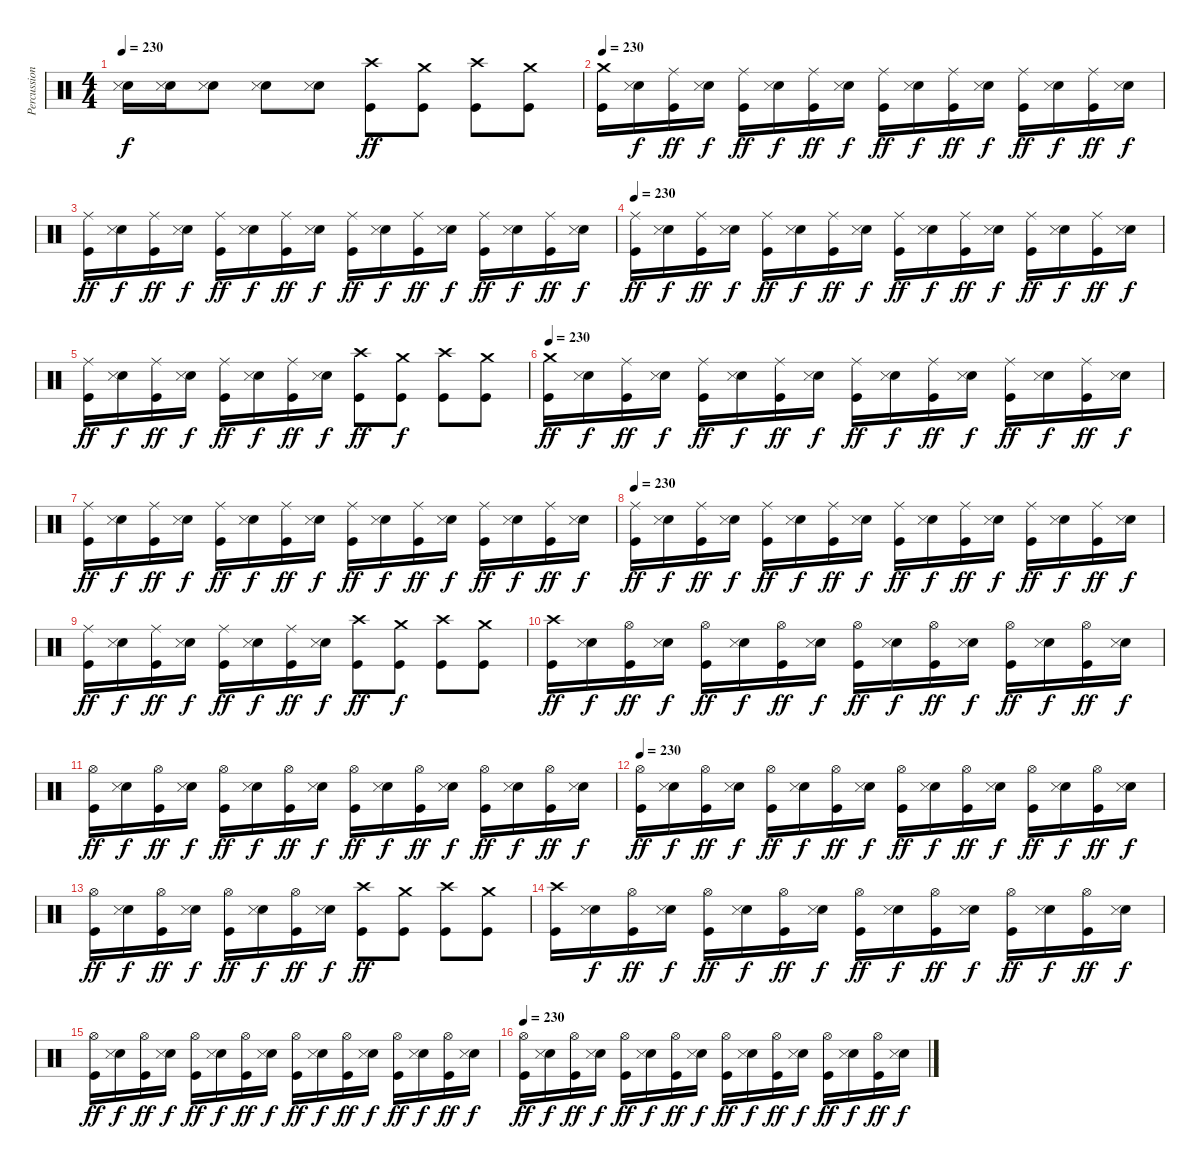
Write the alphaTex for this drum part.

\track ("Percussions" "Percussion") {instrument percussion}
\staff {score}
\articulation defaults
\ts (4 4)
\tempo 230
\clef neutral
\ks c
("Electric Snare (hit)" "Snare (side stick) 3").16{dy f} ("Electric Snare (hit)" "Snare (side stick) 3").16 ("Electric Snare (hit)" "Snare (side stick) 3").8 ("Electric Snare (hit)" "Snare (side stick) 3").8 ("Electric Snare (hit)" "Snare (side stick) 3").8 ("Crash high (hit)" "Kick (hit)").8{dy ff} ("Crash medium (hit)" "Kick (hit)").8 ("Crash high (hit)" "Kick (hit)").8 ("Crash medium (hit)" "Kick (hit)").8 |
\tempo 230
("Crash medium (hit)" "Kick (hit)").16 ("Electric Snare (hit)" "Snare (side stick) 3").16{dy f} ("Ride (middle)" "Kick (hit)").16{dy ff} ("Electric Snare (hit)" "Snare (side stick) 3").16{dy f} ("Ride (middle)" "Kick (hit)").16{dy ff} ("Electric Snare (hit)" "Snare (side stick) 3").16{dy f} ("Ride (middle)" "Kick (hit)").16{dy ff} ("Electric Snare (hit)" "Snare (side stick) 3").16{dy f} ("Ride (middle)" "Kick (hit)").16{dy ff} ("Electric Snare (hit)" "Snare (side stick) 3").16{dy f} ("Ride (middle)" "Kick (hit)").16{dy ff} ("Electric Snare (hit)" "Snare (side stick) 3").16{dy f} ("Ride (middle)" "Kick (hit)").16{dy ff} ("Electric Snare (hit)" "Snare (side stick) 3").16{dy f} ("Ride (middle)" "Kick (hit)").16{dy ff} ("Electric Snare (hit)" "Snare (side stick) 3").16{dy f} |
("Ride (middle)" "Kick (hit)").16{dy ff} ("Electric Snare (hit)" "Snare (side stick) 3").16{dy f} ("Ride (middle)" "Kick (hit)").16{dy ff} ("Electric Snare (hit)" "Snare (side stick) 3").16{dy f} ("Ride (middle)" "Kick (hit)").16{dy ff} ("Electric Snare (hit)" "Snare (side stick) 3").16{dy f} ("Ride (middle)" "Kick (hit)").16{dy ff} ("Electric Snare (hit)" "Snare (side stick) 3").16{dy f} ("Ride (middle)" "Kick (hit)").16{dy ff} ("Electric Snare (hit)" "Snare (side stick) 3").16{dy f} ("Ride (middle)" "Kick (hit)").16{dy ff} ("Electric Snare (hit)" "Snare (side stick) 3").16{dy f} ("Ride (middle)" "Kick (hit)").16{dy ff} ("Electric Snare (hit)" "Snare (side stick) 3").16{dy f} ("Ride (middle)" "Kick (hit)").16{dy ff} ("Electric Snare (hit)" "Snare (side stick) 3").16{dy f} |
\tempo 230
("Ride (middle)" "Kick (hit)").16{dy ff} ("Electric Snare (hit)" "Snare (side stick) 3").16{dy f} ("Ride (middle)" "Kick (hit)").16{dy ff} ("Electric Snare (hit)" "Snare (side stick) 3").16{dy f} ("Ride (middle)" "Kick (hit)").16{dy ff} ("Electric Snare (hit)" "Snare (side stick) 3").16{dy f} ("Ride (middle)" "Kick (hit)").16{dy ff} ("Electric Snare (hit)" "Snare (side stick) 3").16{dy f} ("Ride (middle)" "Kick (hit)").16{dy ff} ("Electric Snare (hit)" "Snare (side stick) 3").16{dy f} ("Ride (middle)" "Kick (hit)").16{dy ff} ("Electric Snare (hit)" "Snare (side stick) 3").16{dy f} ("Ride (middle)" "Kick (hit)").16{dy ff} ("Electric Snare (hit)" "Snare (side stick) 3").16{dy f} ("Ride (middle)" "Kick (hit)").16{dy ff} ("Electric Snare (hit)" "Snare (side stick) 3").16{dy f} |
("Ride (middle)" "Kick (hit)").16{dy ff} ("Electric Snare (hit)" "Snare (side stick) 3").16{dy f} ("Ride (middle)" "Kick (hit)").16{dy ff} ("Electric Snare (hit)" "Snare (side stick) 3").16{dy f} ("Ride (middle)" "Kick (hit)").16{dy ff} ("Electric Snare (hit)" "Snare (side stick) 3").16{dy f} ("Ride (middle)" "Kick (hit)").16{dy ff} ("Electric Snare (hit)" "Snare (side stick) 3").16{dy f} ("Crash high (hit)" "Kick (hit)").8{dy ff} ("Crash medium (hit)" "Kick (hit)").8{dy f} ("Crash high (hit)" "Kick (hit)").8 ("Crash medium (hit)" "Kick (hit)").8 |
\tempo 230
("Crash medium (hit)" "Kick (hit)").16{dy ff} ("Electric Snare (hit)" "Snare (side stick) 3").16{dy f} ("Ride (middle)" "Kick (hit)").16{dy ff} ("Electric Snare (hit)" "Snare (side stick) 3").16{dy f} ("Ride (middle)" "Kick (hit)").16{dy ff} ("Electric Snare (hit)" "Snare (side stick) 3").16{dy f} ("Ride (middle)" "Kick (hit)").16{dy ff} ("Electric Snare (hit)" "Snare (side stick) 3").16{dy f} ("Ride (middle)" "Kick (hit)").16{dy ff} ("Electric Snare (hit)" "Snare (side stick) 3").16{dy f} ("Ride (middle)" "Kick (hit)").16{dy ff} ("Electric Snare (hit)" "Snare (side stick) 3").16{dy f} ("Ride (middle)" "Kick (hit)").16{dy ff} ("Electric Snare (hit)" "Snare (side stick) 3").16{dy f} ("Ride (middle)" "Kick (hit)").16{dy ff} ("Electric Snare (hit)" "Snare (side stick) 3").16{dy f} |
("Ride (middle)" "Kick (hit)").16{dy ff} ("Electric Snare (hit)" "Snare (side stick) 3").16{dy f} ("Ride (middle)" "Kick (hit)").16{dy ff} ("Electric Snare (hit)" "Snare (side stick) 3").16{dy f} ("Ride (middle)" "Kick (hit)").16{dy ff} ("Electric Snare (hit)" "Snare (side stick) 3").16{dy f} ("Ride (middle)" "Kick (hit)").16{dy ff} ("Electric Snare (hit)" "Snare (side stick) 3").16{dy f} ("Ride (middle)" "Kick (hit)").16{dy ff} ("Electric Snare (hit)" "Snare (side stick) 3").16{dy f} ("Ride (middle)" "Kick (hit)").16{dy ff} ("Electric Snare (hit)" "Snare (side stick) 3").16{dy f} ("Ride (middle)" "Kick (hit)").16{dy ff} ("Electric Snare (hit)" "Snare (side stick) 3").16{dy f} ("Ride (middle)" "Kick (hit)").16{dy ff} ("Electric Snare (hit)" "Snare (side stick) 3").16{dy f} |
\tempo 230
("Ride (middle)" "Kick (hit)").16{dy ff} ("Electric Snare (hit)" "Snare (side stick) 3").16{dy f} ("Ride (middle)" "Kick (hit)").16{dy ff} ("Electric Snare (hit)" "Snare (side stick) 3").16{dy f} ("Ride (middle)" "Kick (hit)").16{dy ff} ("Electric Snare (hit)" "Snare (side stick) 3").16{dy f} ("Ride (middle)" "Kick (hit)").16{dy ff} ("Electric Snare (hit)" "Snare (side stick) 3").16{dy f} ("Ride (middle)" "Kick (hit)").16{dy ff} ("Electric Snare (hit)" "Snare (side stick) 3").16{dy f} ("Ride (middle)" "Kick (hit)").16{dy ff} ("Electric Snare (hit)" "Snare (side stick) 3").16{dy f} ("Ride (middle)" "Kick (hit)").16{dy ff} ("Electric Snare (hit)" "Snare (side stick) 3").16{dy f} ("Ride (middle)" "Kick (hit)").16{dy ff} ("Electric Snare (hit)" "Snare (side stick) 3").16{dy f} |
("Ride (middle)" "Kick (hit)").16{dy ff} ("Electric Snare (hit)" "Snare (side stick) 3").16{dy f} ("Ride (middle)" "Kick (hit)").16{dy ff} ("Electric Snare (hit)" "Snare (side stick) 3").16{dy f} ("Ride (middle)" "Kick (hit)").16{dy ff} ("Electric Snare (hit)" "Snare (side stick) 3").16{dy f} ("Ride (middle)" "Kick (hit)").16{dy ff} ("Electric Snare (hit)" "Snare (side stick) 3").16{dy f} ("Crash high (hit)" "Kick (hit)").8{dy ff} ("Crash medium (hit)" "Kick (hit)").8{dy f} ("Crash high (hit)" "Kick (hit)").8 ("Crash medium (hit)" "Kick (hit)").8 |
("Crash high (hit)" "Kick (hit)").16{dy ff} ("Electric Snare (hit)" "Snare (side stick) 3").16{dy f} ("Hi-Hat (open)" "Kick (hit)").16{dy ff} ("Electric Snare (hit)" "Snare (side stick) 3").16{dy f} ("Hi-Hat (open)" "Kick (hit)").16{dy ff} ("Electric Snare (hit)" "Snare (side stick) 3").16{dy f} ("Hi-Hat (open)" "Kick (hit)").16{dy ff} ("Electric Snare (hit)" "Snare (side stick) 3").16{dy f} ("Hi-Hat (open)" "Kick (hit)").16{dy ff} ("Electric Snare (hit)" "Snare (side stick) 3").16{dy f} ("Hi-Hat (open)" "Kick (hit)").16{dy ff} ("Electric Snare (hit)" "Snare (side stick) 3").16{dy f} ("Hi-Hat (open)" "Kick (hit)").16{dy ff} ("Electric Snare (hit)" "Snare (side stick) 3").16{dy f} ("Hi-Hat (open)" "Kick (hit)").16{dy ff} ("Electric Snare (hit)" "Snare (side stick) 3").16{dy f} |
("Hi-Hat (open)" "Kick (hit)").16{dy ff} ("Electric Snare (hit)" "Snare (side stick) 3").16{dy f} ("Hi-Hat (open)" "Kick (hit)").16{dy ff} ("Electric Snare (hit)" "Snare (side stick) 3").16{dy f} ("Hi-Hat (open)" "Kick (hit)").16{dy ff} ("Electric Snare (hit)" "Snare (side stick) 3").16{dy f} ("Hi-Hat (open)" "Kick (hit)").16{dy ff} ("Electric Snare (hit)" "Snare (side stick) 3").16{dy f} ("Hi-Hat (open)" "Kick (hit)").16{dy ff} ("Electric Snare (hit)" "Snare (side stick) 3").16{dy f} ("Hi-Hat (open)" "Kick (hit)").16{dy ff} ("Electric Snare (hit)" "Snare (side stick) 3").16{dy f} ("Hi-Hat (open)" "Kick (hit)").16{dy ff} ("Electric Snare (hit)" "Snare (side stick) 3").16{dy f} ("Hi-Hat (open)" "Kick (hit)").16{dy ff} ("Electric Snare (hit)" "Snare (side stick) 3").16{dy f} |
\tempo 230
("Hi-Hat (open)" "Kick (hit)").16{dy ff} ("Electric Snare (hit)" "Snare (side stick) 3").16{dy f} ("Hi-Hat (open)" "Kick (hit)").16{dy ff} ("Electric Snare (hit)" "Snare (side stick) 3").16{dy f} ("Hi-Hat (open)" "Kick (hit)").16{dy ff} ("Electric Snare (hit)" "Snare (side stick) 3").16{dy f} ("Hi-Hat (open)" "Kick (hit)").16{dy ff} ("Electric Snare (hit)" "Snare (side stick) 3").16{dy f} ("Hi-Hat (open)" "Kick (hit)").16{dy ff} ("Electric Snare (hit)" "Snare (side stick) 3").16{dy f} ("Hi-Hat (open)" "Kick (hit)").16{dy ff} ("Electric Snare (hit)" "Snare (side stick) 3").16{dy f} ("Hi-Hat (open)" "Kick (hit)").16{dy ff} ("Electric Snare (hit)" "Snare (side stick) 3").16{dy f} ("Hi-Hat (open)" "Kick (hit)").16{dy ff} ("Electric Snare (hit)" "Snare (side stick) 3").16{dy f} |
("Hi-Hat (open)" "Kick (hit)").16{dy ff} ("Electric Snare (hit)" "Snare (side stick) 3").16{dy f} ("Hi-Hat (open)" "Kick (hit)").16{dy ff} ("Electric Snare (hit)" "Snare (side stick) 3").16{dy f} ("Hi-Hat (open)" "Kick (hit)").16{dy ff} ("Electric Snare (hit)" "Snare (side stick) 3").16{dy f} ("Hi-Hat (open)" "Kick (hit)").16{dy ff} ("Electric Snare (hit)" "Snare (side stick) 3").16{dy f} ("Crash high (hit)" "Kick (hit)").8{dy ff} ("Crash medium (hit)" "Kick (hit)").8 ("Crash high (hit)" "Kick (hit)").8 ("Crash medium (hit)" "Kick (hit)").8 |
("Crash high (hit)" "Kick (hit)").16 ("Electric Snare (hit)" "Snare (side stick) 3").16{dy f} ("Hi-Hat (open)" "Kick (hit)").16{dy ff} ("Electric Snare (hit)" "Snare (side stick) 3").16{dy f} ("Hi-Hat (open)" "Kick (hit)").16{dy ff} ("Electric Snare (hit)" "Snare (side stick) 3").16{dy f} ("Hi-Hat (open)" "Kick (hit)").16{dy ff} ("Electric Snare (hit)" "Snare (side stick) 3").16{dy f} ("Hi-Hat (open)" "Kick (hit)").16{dy ff} ("Electric Snare (hit)" "Snare (side stick) 3").16{dy f} ("Hi-Hat (open)" "Kick (hit)").16{dy ff} ("Electric Snare (hit)" "Snare (side stick) 3").16{dy f} ("Hi-Hat (open)" "Kick (hit)").16{dy ff} ("Electric Snare (hit)" "Snare (side stick) 3").16{dy f} ("Hi-Hat (open)" "Kick (hit)").16{dy ff} ("Electric Snare (hit)" "Snare (side stick) 3").16{dy f} |
("Hi-Hat (open)" "Kick (hit)").16{dy ff} ("Electric Snare (hit)" "Snare (side stick) 3").16{dy f} ("Hi-Hat (open)" "Kick (hit)").16{dy ff} ("Electric Snare (hit)" "Snare (side stick) 3").16{dy f} ("Hi-Hat (open)" "Kick (hit)").16{dy ff} ("Electric Snare (hit)" "Snare (side stick) 3").16{dy f} ("Hi-Hat (open)" "Kick (hit)").16{dy ff} ("Electric Snare (hit)" "Snare (side stick) 3").16{dy f} ("Hi-Hat (open)" "Kick (hit)").16{dy ff} ("Electric Snare (hit)" "Snare (side stick) 3").16{dy f} ("Hi-Hat (open)" "Kick (hit)").16{dy ff} ("Electric Snare (hit)" "Snare (side stick) 3").16{dy f} ("Hi-Hat (open)" "Kick (hit)").16{dy ff} ("Electric Snare (hit)" "Snare (side stick) 3").16{dy f} ("Hi-Hat (open)" "Kick (hit)").16{dy ff} ("Electric Snare (hit)" "Snare (side stick) 3").16{dy f} |
\tempo 230
("Hi-Hat (open)" "Kick (hit)").16{dy ff} ("Electric Snare (hit)" "Snare (side stick) 3").16{dy f} ("Hi-Hat (open)" "Kick (hit)").16{dy ff} ("Electric Snare (hit)" "Snare (side stick) 3").16{dy f} ("Hi-Hat (open)" "Kick (hit)").16{dy ff} ("Electric Snare (hit)" "Snare (side stick) 3").16{dy f} ("Hi-Hat (open)" "Kick (hit)").16{dy ff} ("Electric Snare (hit)" "Snare (side stick) 3").16{dy f} ("Hi-Hat (open)" "Kick (hit)").16{dy ff} ("Electric Snare (hit)" "Snare (side stick) 3").16{dy f} ("Hi-Hat (open)" "Kick (hit)").16{dy ff} ("Electric Snare (hit)" "Snare (side stick) 3").16{dy f} ("Hi-Hat (open)" "Kick (hit)").16{dy ff} ("Electric Snare (hit)" "Snare (side stick) 3").16{dy f} ("Hi-Hat (open)" "Kick (hit)").16{dy ff} ("Electric Snare (hit)" "Snare (side stick) 3").16{dy f}
